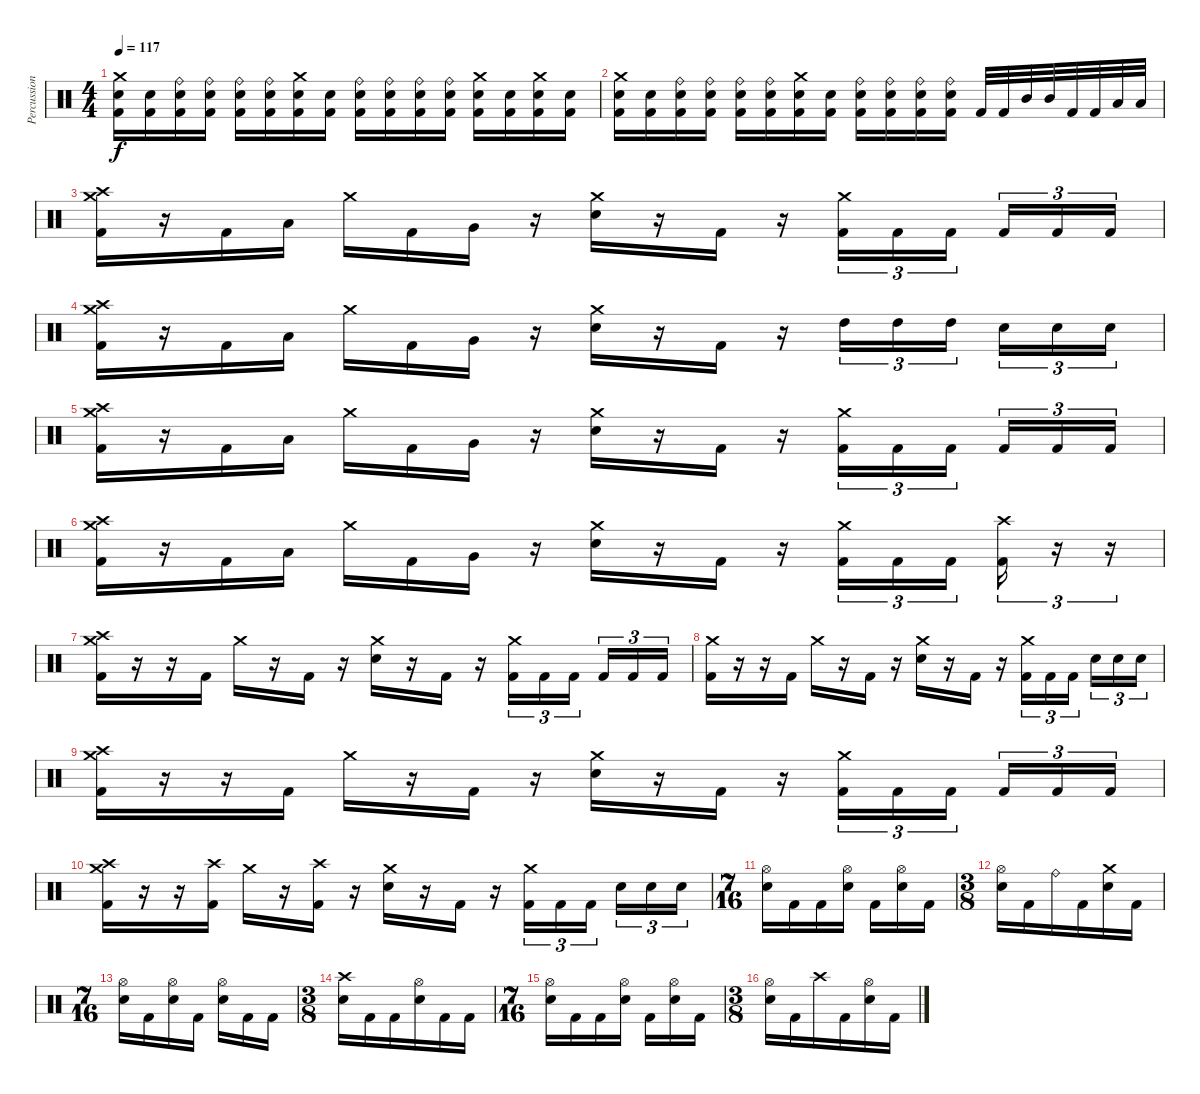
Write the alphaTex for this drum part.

\track ("Percussion" "Percussion") {instrument percussion}
\staff {score}
\articulation defaults
\ts (4 4)
\tempo 117
\clef neutral
\ks c
("Crash medium (hit)" "Electric Snare (hit)" "Kick (hit) 2").16{dy f} ("Electric Snare (hit)" "Kick (hit) 2").16 ("Ride (bell)" "Electric Snare (hit)" "Kick (hit) 2").16 ("Ride (bell)" "Electric Snare (hit)" "Kick (hit) 2").16 ("Ride (bell)" "Electric Snare (hit)" "Kick (hit) 2").16 ("Ride (bell)" "Electric Snare (hit)" "Kick (hit) 2").16 ("Crash medium (hit)" "Electric Snare (hit)" "Kick (hit) 2").16 ("Electric Snare (hit)" "Kick (hit) 2").16 ("Ride (bell)" "Electric Snare (hit)" "Kick (hit) 2").16 ("Ride (bell)" "Electric Snare (hit)" "Kick (hit) 2").16 ("Ride (bell)" "Electric Snare (hit)" "Kick (hit) 2").16 ("Ride (bell)" "Electric Snare (hit)" "Kick (hit) 2").16 ("Crash medium (hit)" "Electric Snare (hit)" "Kick (hit) 2").16 ("Electric Snare (hit)" "Kick (hit) 2").16 ("Crash medium (hit)" "Electric Snare (hit)" "Kick (hit) 2").16 ("Electric Snare (hit)" "Kick (hit) 2").16 |
("Crash medium (hit)" "Electric Snare (hit)" "Kick (hit) 2").16 ("Electric Snare (hit)" "Kick (hit) 2").16 ("Ride (bell)" "Electric Snare (hit)" "Kick (hit) 2").16 ("Ride (bell)" "Electric Snare (hit)" "Kick (hit) 2").16 ("Ride (bell)" "Electric Snare (hit)" "Kick (hit) 2").16 ("Ride (bell)" "Electric Snare (hit)" "Kick (hit) 2").16 ("Crash medium (hit)" "Electric Snare (hit)" "Kick (hit) 2").16 ("Electric Snare (hit)" "Kick (hit) 2").16 ("Ride (bell)" "Electric Snare (hit)" "Kick (hit) 2").16 ("Ride (bell)" "Electric Snare (hit)" "Kick (hit) 2").16 ("Ride (bell)" "Electric Snare (hit)" "Kick (hit) 2").16 ("Ride (bell)" "Electric Snare (hit)" "Kick (hit) 2").16 "Kick (hit) 2".32 "Kick (hit) 2".32 "Mid Tom (hit)".32 "Mid Tom (hit)".32 "Kick (hit) 2".32 "Kick (hit) 2".32 "Low Tom (hit)".32 "Low Tom (hit)".32 |
("Crash high (hit)" "Crash medium (hit)" "Kick (hit) 2").16 r.16 "Kick (hit) 2".16 "Low Tom (hit)".16 "Crash medium (hit)".16 "Kick (hit) 2".16 "Very Low Tom (hit)".16 r.16 ("Crash medium (hit)" "Electric Snare (hit)").16 r.16 "Kick (hit) 2".16 r.16 ("Crash medium (hit)" "Kick (hit) 2").16{tu (3 2)} "Kick (hit) 2".16{tu (3 2)} "Kick (hit) 2".16{tu (3 2) beam splitsecondary} "Kick (hit) 2".16{tu (3 2)} "Kick (hit) 2".16{tu (3 2)} "Kick (hit) 2".16{tu (3 2)} |
("Crash high (hit)" "Crash medium (hit)" "Kick (hit) 2").16 r.16 "Kick (hit) 2".16 "Low Tom (hit)".16 "Crash medium (hit)".16 "Kick (hit) 2".16 "Very Low Tom (hit)".16 r.16 ("Crash medium (hit)" "Electric Snare (hit)").16 r.16 "Kick (hit) 2".16 r.16 "High Tom (hit)".16{tu (3 2)} "High Tom (hit)".16{tu (3 2)} "High Tom (hit)".16{tu (3 2) beam splitsecondary} "Electric Snare (hit)".16{tu (3 2)} "Electric Snare (hit)".16{tu (3 2)} "Electric Snare (hit)".16{tu (3 2)} |
("Crash high (hit)" "Crash medium (hit)" "Kick (hit) 2").16 r.16 "Kick (hit) 2".16 "Low Tom (hit)".16 "Crash medium (hit)".16 "Kick (hit) 2".16 "Very Low Tom (hit)".16 r.16 ("Crash medium (hit)" "Electric Snare (hit)").16 r.16 "Kick (hit) 2".16 r.16 ("Crash medium (hit)" "Kick (hit) 2").16{tu (3 2)} "Kick (hit) 2".16{tu (3 2)} "Kick (hit) 2".16{tu (3 2) beam splitsecondary} "Kick (hit) 2".16{tu (3 2)} "Kick (hit) 2".16{tu (3 2)} "Kick (hit) 2".16{tu (3 2)} |
("Crash high (hit)" "Crash medium (hit)" "Kick (hit) 2").16 r.16 "Kick (hit) 2".16 "Low Tom (hit)".16 "Crash medium (hit)".16 "Kick (hit) 2".16 "Very Low Tom (hit)".16 r.16 ("Crash medium (hit)" "Electric Snare (hit)").16 r.16 "Kick (hit) 2".16 r.16 ("Crash medium (hit)" "Kick (hit) 2").16{tu (3 2)} "Kick (hit) 2".16{tu (3 2)} "Kick (hit) 2".16{tu (3 2) beam splitsecondary} ("Crash high (hit)" "Kick (hit) 2").16{tu (3 2)} r.16{tu (3 2) volume 0} r.16{tu (3 2)} |
("Crash high (hit)" "Crash medium (hit)" "Kick (hit) 2").16{volume 13} r.16 r.16 "Kick (hit) 2".16 "Crash medium (hit)".16 r.16 "Kick (hit) 2".16 r.16 ("Crash medium (hit)" "Electric Snare (hit)").16 r.16 "Kick (hit) 2".16 r.16 ("Crash medium (hit)" "Kick (hit) 2").16{tu (3 2)} "Kick (hit) 2".16{tu (3 2)} "Kick (hit) 2".16{tu (3 2) beam splitsecondary} "Kick (hit) 2".16{tu (3 2)} "Kick (hit) 2".16{tu (3 2)} "Kick (hit) 2".16{tu (3 2)} |
("Crash medium (hit)" "Kick (hit) 2").16 r.16 r.16 "Kick (hit) 2".16 "Crash medium (hit)".16 r.16 "Kick (hit) 2".16 r.16 ("Crash medium (hit)" "Electric Snare (hit)").16 r.16 "Kick (hit) 2".16 r.16 ("Crash medium (hit)" "Kick (hit) 2").16{tu (3 2)} "Kick (hit) 2".16{tu (3 2)} "Kick (hit) 2".16{tu (3 2) beam splitsecondary} "Electric Snare (hit)".16{tu (3 2)} "Electric Snare (hit)".16{tu (3 2)} "Electric Snare (hit)".16{tu (3 2)} |
("Crash high (hit)" "Crash medium (hit)" "Kick (hit) 2").16 r.16 r.16 "Kick (hit) 2".16 "Crash medium (hit)".16 r.16 "Kick (hit) 2".16 r.16 ("Crash medium (hit)" "Electric Snare (hit)").16 r.16 "Kick (hit) 2".16 r.16 ("Crash medium (hit)" "Kick (hit) 2").16{tu (3 2)} "Kick (hit) 2".16{tu (3 2)} "Kick (hit) 2".16{tu (3 2) beam splitsecondary} "Kick (hit) 2".16{tu (3 2)} "Kick (hit) 2".16{tu (3 2)} "Kick (hit) 2".16{tu (3 2)} |
("Crash high (hit)" "Crash medium (hit)" "Kick (hit) 2").16 r.16 r.16 ("Crash high (hit)" "Kick (hit) 2").16 "Crash medium (hit)".16 r.16 ("Crash high (hit)" "Kick (hit) 2").16 r.16 ("Crash medium (hit)" "Electric Snare (hit)").16 r.16 "Kick (hit) 2".16 r.16 ("Crash medium (hit)" "Kick (hit) 2").16{tu (3 2)} "Kick (hit) 2".16{tu (3 2)} "Kick (hit) 2".16{tu (3 2) beam splitsecondary} "Electric Snare (hit)".16{tu (3 2)} "Electric Snare (hit)".16{tu (3 2)} "Electric Snare (hit)".16{tu (3 2)} |
\ts (7 16)
("Hi-Hat (open)" "Electric Snare (hit)").16 "Kick (hit) 2".16 "Kick (hit) 2".16 ("Hi-Hat (open)" "Electric Snare (hit)").16 "Kick (hit) 2".16 ("Hi-Hat (open)" "Electric Snare (hit)").16 "Kick (hit) 2".16 |
\ts (3 8)
("Hi-Hat (open)" "Electric Snare (hit)").16 "Kick (hit) 2".16 "Ride (bell)".16 "Kick (hit) 2".16 ("Crash medium (hit)" "Electric Snare (hit)").16 "Kick (hit) 2".16 |
\ts (7 16)
("Hi-Hat (open)" "Electric Snare (hit)").16 "Kick (hit) 2".16 ("Hi-Hat (open)" "Electric Snare (hit)").16 "Kick (hit) 2".16 ("Hi-Hat (open)" "Electric Snare (hit)").16 "Kick (hit) 2".16 "Kick (hit) 2".16 |
\ts (3 8)
("Crash high (hit)" "Electric Snare (hit)").16 "Kick (hit) 2".16 "Kick (hit) 2".16 ("Hi-Hat (open)" "Electric Snare (hit)").16 "Kick (hit) 2".16 "Kick (hit) 2".16 |
\ts (7 16)
("Hi-Hat (open)" "Electric Snare (hit)").16 "Kick (hit) 2".16 "Kick (hit) 2".16 ("Hi-Hat (open)" "Electric Snare (hit)").16 "Kick (hit) 2".16 ("Hi-Hat (open)" "Electric Snare (hit)").16 "Kick (hit) 2".16 |
\ts (3 8)
("Hi-Hat (open)" "Electric Snare (hit)").16 "Kick (hit) 2".16 "Crash high (hit)".16 "Kick (hit) 2".16 ("Hi-Hat (open)" "Electric Snare (hit)").16 "Kick (hit) 2".16
